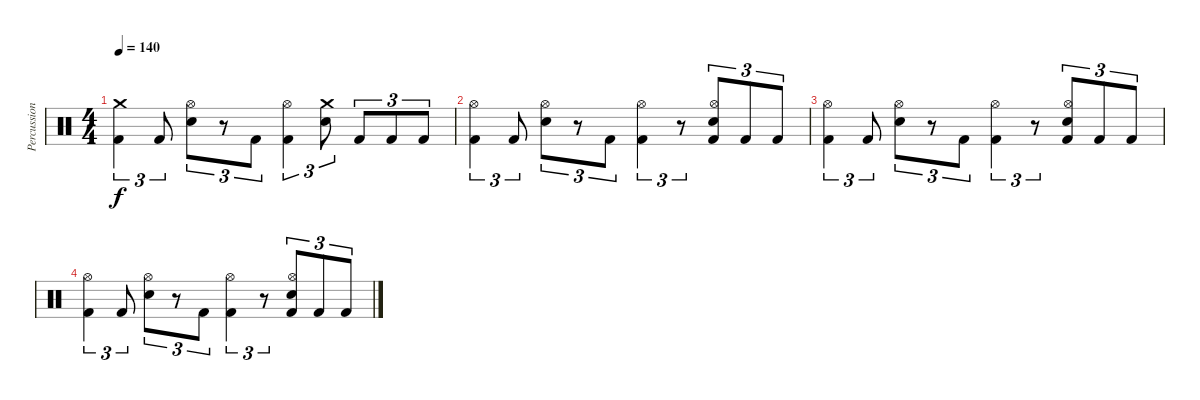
\track ("Percussions" "Percussion") {instrument percussion}
\staff {score}
\articulation defaults
\ts (4 4)
\tempo 140
\clef neutral
\ks c
("Crash medium (hit)" "Kick (hit) 2").4{tu (3 2) dy f} "Kick (hit) 2".8{tu (3 2)} ("Hi-Hat (open)" "Electric Snare (hit)").8{tu (3 2)} r.8{tu (3 2)} "Kick (hit) 2".8{tu (3 2)} ("Hi-Hat (open)" "Kick (hit) 2").4{tu (3 2)} ("Crash medium (hit)" "Electric Snare (hit)").8{tu (3 2)} "Kick (hit) 2".8{tu (3 2)} "Kick (hit) 2".8{tu (3 2)} "Kick (hit) 2".8{tu (3 2)} |
("Hi-Hat (open)" "Kick (hit) 2").4{tu (3 2)} "Kick (hit) 2".8{tu (3 2)} ("Hi-Hat (open)" "Electric Snare (hit)").8{tu (3 2)} r.8{tu (3 2)} "Kick (hit) 2".8{tu (3 2)} ("Hi-Hat (open)" "Kick (hit) 2").4{tu (3 2)} r.8{tu (3 2)} ("Hi-Hat (open)" "Electric Snare (hit)" "Kick (hit) 2").8{tu (3 2)} "Kick (hit) 2".8{tu (3 2)} "Kick (hit) 2".8{tu (3 2)} |
("Hi-Hat (open)" "Kick (hit) 2").4{tu (3 2)} "Kick (hit) 2".8{tu (3 2)} ("Hi-Hat (open)" "Electric Snare (hit)").8{tu (3 2)} r.8{tu (3 2)} "Kick (hit) 2".8{tu (3 2)} ("Hi-Hat (open)" "Kick (hit) 2").4{tu (3 2)} r.8{tu (3 2)} ("Hi-Hat (open)" "Electric Snare (hit)" "Kick (hit) 2").8{tu (3 2)} "Kick (hit) 2".8{tu (3 2)} "Kick (hit) 2".8{tu (3 2)} |
("Hi-Hat (open)" "Kick (hit) 2").4{tu (3 2)} "Kick (hit) 2".8{tu (3 2)} ("Hi-Hat (open)" "Electric Snare (hit)").8{tu (3 2)} r.8{tu (3 2)} "Kick (hit) 2".8{tu (3 2)} ("Hi-Hat (open)" "Kick (hit) 2").4{tu (3 2)} r.8{tu (3 2)} ("Hi-Hat (open)" "Electric Snare (hit)" "Kick (hit) 2").8{tu (3 2)} "Kick (hit) 2".8{tu (3 2)} "Kick (hit) 2".8{tu (3 2)}
